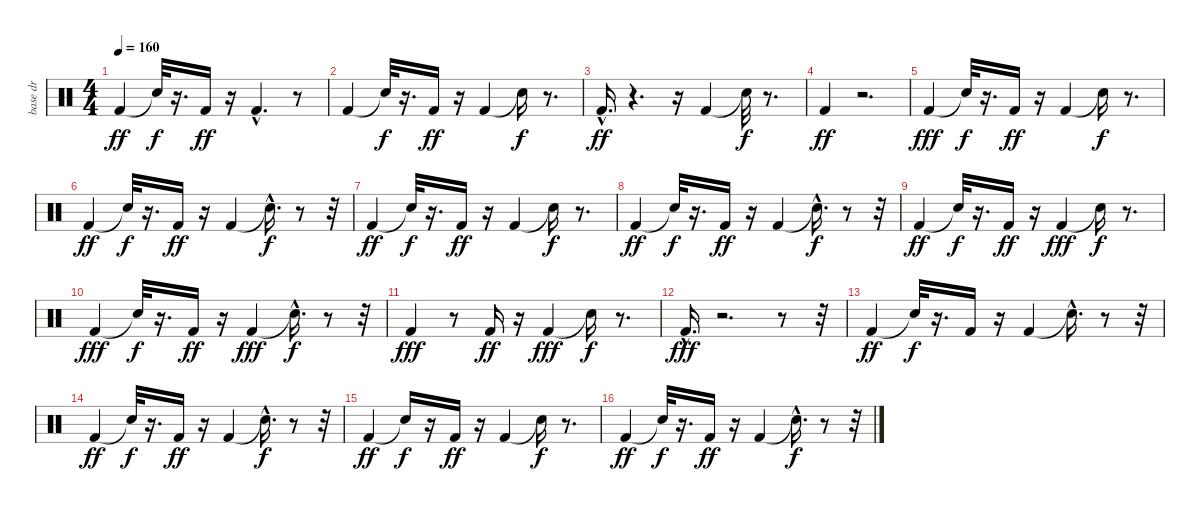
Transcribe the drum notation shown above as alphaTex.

\track ("base dr" "base dr") {instrument percussion}
\staff {score}
\articulation defaults
\ts (4 4)
\tempo 160
\clef neutral
\ks c "Kick (hit) 2".4{dy ff} "Snare (hit)"{t}.32{dy f}
r.16{d} "Kick (hit) 2".16{dy ff} r.16 "Kick (hit) 2"{hac}.4{d} r.8 |
"Kick (hit) 2".4 "Snare (hit)"{t}.32{dy f} r.16{d} "Kick (hit) 2".16{dy ff} r.16 "Kick (hit) 2".4 "Snare (hit)"{t}.16{dy f} r.8{d} |
"Kick (hit) 2"{hac}.16{d dy ff} r.4{d} r.16 "Kick (hit) 2".4 "Snare (hit)"{t}.32{dy f} r.8{d} |
"Kick (hit) 2".4{dy ff} r.2{d} |
"Kick (hit) 2".4{dy fff} "Snare (hit)"{t}.32{dy f} r.16{d} "Kick (hit) 2".16{dy ff} r.16 "Kick (hit) 2".4 "Snare (hit)"{t}.16{dy f} r.8{d} |
"Kick (hit) 2".4{dy ff} "Snare (hit)"{t}.32{dy f} r.16{d} "Kick (hit) 2".16{dy ff} r.16 "Kick (hit) 2".4 "Snare (hit)"{hac t}.16{d dy f} r.8 r.32 |
"Kick (hit) 2".4{dy ff} "Snare (hit)"{t}.32{dy f} r.16{d} "Kick (hit) 2".16{dy ff} r.16 "Kick (hit) 2".4 "Snare (hit)"{t}.16{dy f} r.8{d} |
"Kick (hit) 2".4{dy ff} "Snare (hit)"{t}.32{dy f} r.16{d} "Kick (hit) 2".16{dy ff} r.16 "Kick (hit) 2".4 "Snare (hit)"{hac t}.16{d dy f} r.8 r.32 |
"Kick (hit) 2".4{dy ff} "Snare (hit)"{t}.32{dy f} r.16{d} "Kick (hit) 2".16{dy ff} r.16 "Kick (hit) 2".4{dy fff} "Snare (hit)"{t}.16{dy f} r.8{d} |
"Kick (hit) 2".4{dy fff} "Snare (hit)"{t}.32{dy f} r.16{d} "Kick (hit) 2".16{dy ff} r.16 "Kick (hit) 2".4{dy fff} "Snare (hit)"{hac t}.16{d dy f} r.8 r.32 |
"Kick (hit) 2".4{dy fff} r.8 "Kick (hit) 2".16{dy ff} r.16 "Kick (hit) 2".4{dy fff} "Snare (hit)"{t}.16{dy f} r.8{d} |
"Kick (hit) 2"{hac}.16{d dy fff} r.2{d} r.8 r.32 |
"Kick (hit) 2".4{dy ff} "Snare (hit)"{t}.32{dy f} r.16{d} "Kick (hit) 2".16 r.16 "Kick (hit) 2".4 "Snare (hit)"{hac t}.16{d} r.8 r.32 |
"Kick (hit) 2".4{dy ff} "Snare (hit)"{t}.32{dy f} r.16{d} "Kick (hit) 2".16{dy ff} r.16 "Kick (hit) 2".4 "Snare (hit)"{hac t}.16{d dy f} r.8 r.32 |
"Kick (hit) 2".4{dy ff} "Snare (hit)"{t}.16{dy f} r.16 "Kick (hit) 2".16{dy ff} r.16 "Kick (hit) 2".4 "Snare (hit)"{t}.16{dy f} r.8{d} |
"Kick (hit) 2".4{dy ff} "Snare (hit)"{t}.32{dy f} r.16{d} "Kick (hit) 2".16{dy ff} r.16 "Kick (hit) 2".4 "Snare (hit)"{hac t}.16{d dy f} r.8 r.32
